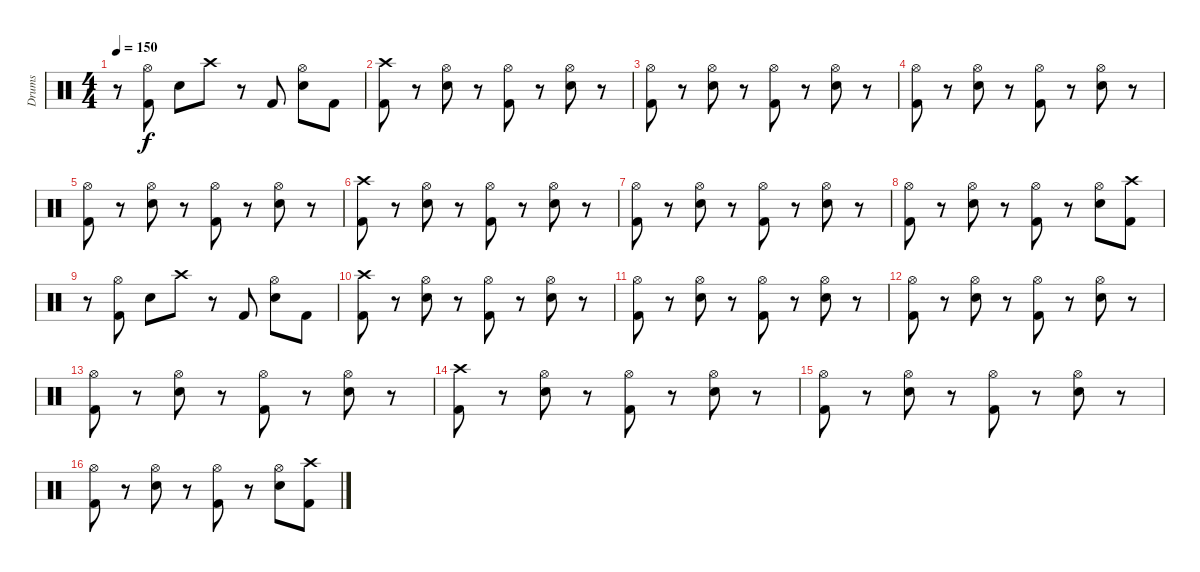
\track ("Drums" "Drums") {instrument percussion}
\staff {score}
\articulation defaults
\ts (4 4)
\tempo 150
\clef neutral
\ks c
r.8{dy f} ("Hi-Hat (open)" "Kick (hit) 2").8 "Snare (hit) 2".8 "Crash high (hit)".8 r.8 "Kick (hit) 2".8 ("Hi-Hat (open)" "Snare (hit) 2").8 "Kick (hit) 2".8 |
("Crash high (hit)" "Kick (hit) 2").8 r.8 ("Hi-Hat (open)" "Snare (hit) 2").8 r.8 ("Hi-Hat (open)" "Kick (hit) 2").8 r.8 ("Hi-Hat (open)" "Snare (hit) 2").8 r.8 |
("Hi-Hat (open)" "Kick (hit) 2").8 r.8 ("Hi-Hat (open)" "Snare (hit) 2").8 r.8 ("Hi-Hat (open)" "Kick (hit) 2").8 r.8 ("Hi-Hat (open)" "Snare (hit) 2").8 r.8 |
("Hi-Hat (open)" "Kick (hit) 2").8 r.8 ("Hi-Hat (open)" "Snare (hit) 2").8 r.8 ("Hi-Hat (open)" "Kick (hit) 2").8 r.8 ("Hi-Hat (open)" "Snare (hit) 2").8 r.8 |
("Hi-Hat (open)" "Kick (hit) 2").8 r.8 ("Hi-Hat (open)" "Snare (hit) 2").8 r.8 ("Hi-Hat (open)" "Kick (hit) 2").8 r.8 ("Hi-Hat (open)" "Snare (hit) 2").8 r.8 |
("Crash high (hit)" "Kick (hit) 2").8 r.8 ("Hi-Hat (open)" "Snare (hit) 2").8 r.8 ("Hi-Hat (open)" "Kick (hit) 2").8 r.8 ("Hi-Hat (open)" "Snare (hit) 2").8 r.8 |
("Hi-Hat (open)" "Kick (hit) 2").8 r.8 ("Hi-Hat (open)" "Snare (hit) 2").8 r.8 ("Hi-Hat (open)" "Kick (hit) 2").8 r.8 ("Hi-Hat (open)" "Snare (hit) 2").8 r.8 |
("Hi-Hat (open)" "Kick (hit) 2").8 r.8 ("Hi-Hat (open)" "Snare (hit) 2").8 r.8 ("Hi-Hat (open)" "Kick (hit) 2").8 r.8 ("Hi-Hat (open)" "Snare (hit) 2").8 ("Crash high (hit)" "Kick (hit) 2").8 |
r.8 ("Hi-Hat (open)" "Kick (hit) 2").8 "Snare (hit) 2".8 "Crash high (hit)".8 r.8 "Kick (hit) 2".8 ("Hi-Hat (open)" "Snare (hit) 2").8 "Kick (hit) 2".8 |
("Crash high (hit)" "Kick (hit) 2").8 r.8 ("Hi-Hat (open)" "Snare (hit) 2").8 r.8 ("Hi-Hat (open)" "Kick (hit) 2").8 r.8 ("Hi-Hat (open)" "Snare (hit) 2").8 r.8 |
("Hi-Hat (open)" "Kick (hit) 2").8 r.8 ("Hi-Hat (open)" "Snare (hit) 2").8 r.8 ("Hi-Hat (open)" "Kick (hit) 2").8 r.8 ("Hi-Hat (open)" "Snare (hit) 2").8 r.8 |
("Hi-Hat (open)" "Kick (hit) 2").8 r.8 ("Hi-Hat (open)" "Snare (hit) 2").8 r.8 ("Hi-Hat (open)" "Kick (hit) 2").8 r.8 ("Hi-Hat (open)" "Snare (hit) 2").8 r.8 |
("Hi-Hat (open)" "Kick (hit) 2").8 r.8 ("Hi-Hat (open)" "Snare (hit) 2").8 r.8 ("Hi-Hat (open)" "Kick (hit) 2").8 r.8 ("Hi-Hat (open)" "Snare (hit) 2").8 r.8 |
("Crash high (hit)" "Kick (hit) 2").8 r.8 ("Hi-Hat (open)" "Snare (hit) 2").8 r.8 ("Hi-Hat (open)" "Kick (hit) 2").8 r.8 ("Hi-Hat (open)" "Snare (hit) 2").8 r.8 |
("Hi-Hat (open)" "Kick (hit) 2").8 r.8 ("Hi-Hat (open)" "Snare (hit) 2").8 r.8 ("Hi-Hat (open)" "Kick (hit) 2").8 r.8 ("Hi-Hat (open)" "Snare (hit) 2").8 r.8 |
("Hi-Hat (open)" "Kick (hit) 2").8 r.8 ("Hi-Hat (open)" "Snare (hit) 2").8 r.8 ("Hi-Hat (open)" "Kick (hit) 2").8 r.8 ("Hi-Hat (open)" "Snare (hit) 2").8 ("Crash high (hit)" "Kick (hit) 2").8
